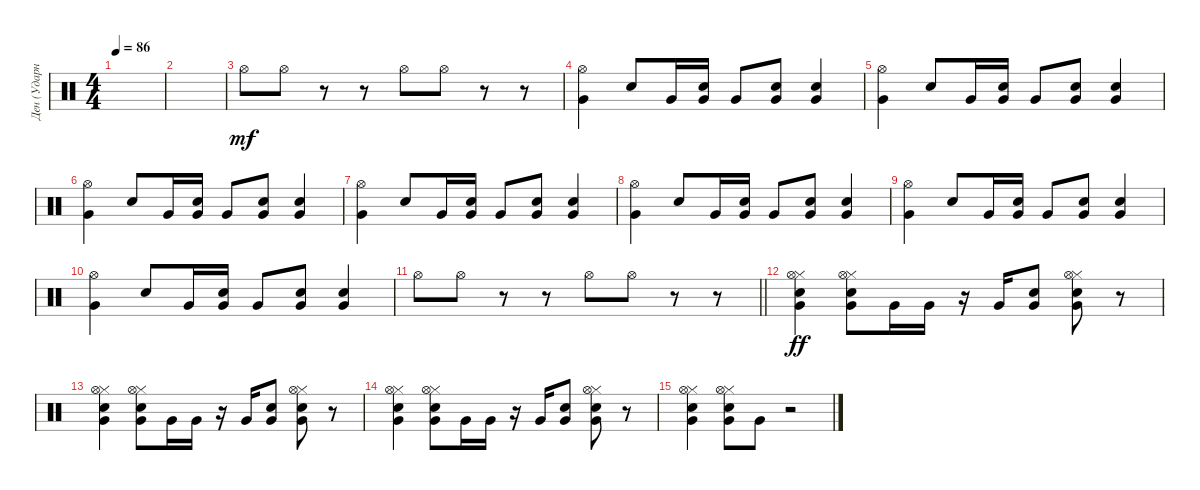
\track ("Ден (Ударные)" "Ден (Ударн") {instrument percussion}
\staff {score}
\articulation defaults
\ts (4 4)
\tempo 86
\clef neutral
\ks c
|
|
"Hi-Hat (open)".8{dy mf} "Hi-Hat (open)".8 r.8 r.8 "Hi-Hat (open)".8 "Hi-Hat (open)".8 r.8 r.8 |
("Very Low Tom (hit)" "Hi-Hat (open)").4 "Electric Snare (hit)".8 "Very Low Tom (hit)".16 ("Very Low Tom (hit)" "Electric Snare (hit)").16 "Very Low Tom (hit)".8 ("Very Low Tom (hit)" "Electric Snare (hit)").8 ("Very Low Tom (hit)" "Electric Snare (hit)").4 |
("Very Low Tom (hit)" "Hi-Hat (open)").4 "Electric Snare (hit)".8 "Very Low Tom (hit)".16 ("Very Low Tom (hit)" "Electric Snare (hit)").16 "Very Low Tom (hit)".8 ("Very Low Tom (hit)" "Electric Snare (hit)").8 ("Very Low Tom (hit)" "Electric Snare (hit)").4 |
("Very Low Tom (hit)" "Hi-Hat (open)").4 "Electric Snare (hit)".8 "Very Low Tom (hit)".16 ("Very Low Tom (hit)" "Electric Snare (hit)").16 "Very Low Tom (hit)".8 ("Very Low Tom (hit)" "Electric Snare (hit)").8 ("Very Low Tom (hit)" "Electric Snare (hit)").4 |
("Very Low Tom (hit)" "Hi-Hat (open)").4 "Electric Snare (hit)".8 "Very Low Tom (hit)".16 ("Very Low Tom (hit)" "Electric Snare (hit)").16 "Very Low Tom (hit)".8 ("Very Low Tom (hit)" "Electric Snare (hit)").8 ("Very Low Tom (hit)" "Electric Snare (hit)").4 |
("Very Low Tom (hit)" "Hi-Hat (open)").4 "Electric Snare (hit)".8 "Very Low Tom (hit)".16 ("Very Low Tom (hit)" "Electric Snare (hit)").16 "Very Low Tom (hit)".8 ("Very Low Tom (hit)" "Electric Snare (hit)").8 ("Very Low Tom (hit)" "Electric Snare (hit)").4 |
("Very Low Tom (hit)" "Hi-Hat (open)").4 "Electric Snare (hit)".8 "Very Low Tom (hit)".16 ("Very Low Tom (hit)" "Electric Snare (hit)").16 "Very Low Tom (hit)".8 ("Very Low Tom (hit)" "Electric Snare (hit)").8 ("Very Low Tom (hit)" "Electric Snare (hit)").4 |
("Very Low Tom (hit)" "Hi-Hat (open)").4 "Electric Snare (hit)".8 "Very Low Tom (hit)".16 ("Very Low Tom (hit)" "Electric Snare (hit)").16 "Very Low Tom (hit)".8 ("Very Low Tom (hit)" "Electric Snare (hit)").8 ("Very Low Tom (hit)" "Electric Snare (hit)").4 |
\barLineRight lightlight "Hi-Hat (open)".8 "Hi-Hat (open)".8
r.8 r.8 "Hi-Hat (open)".8 "Hi-Hat (open)".8 r.8 r.8 |
("Very Low Tom (hit)" "Electric Snare (hit)" "Hi-Hat (closed)" "Hi-Hat (open)").4{dy ff} ("Very Low Tom (hit)" "Electric Snare (hit)" "Hi-Hat (closed)" "Hi-Hat (open)").8 "Very Low Tom (hit)".16 "Very Low Tom (hit)".16 r.16 "Very Low Tom (hit)".16 ("Electric Snare (hit)" "Very Low Tom (hit)").8 ("Very Low Tom (hit)" "Electric Snare (hit)" "Hi-Hat (closed)" "Hi-Hat (open)").8 r.8 |
("Very Low Tom (hit)" "Electric Snare (hit)" "Hi-Hat (closed)" "Hi-Hat (open)").4 ("Very Low Tom (hit)" "Electric Snare (hit)" "Hi-Hat (closed)" "Hi-Hat (open)").8 "Very Low Tom (hit)".16 "Very Low Tom (hit)".16 r.16 "Very Low Tom (hit)".16 ("Electric Snare (hit)" "Very Low Tom (hit)").8 ("Very Low Tom (hit)" "Electric Snare (hit)" "Hi-Hat (closed)" "Hi-Hat (open)").8 r.8 |
("Very Low Tom (hit)" "Electric Snare (hit)" "Hi-Hat (closed)" "Hi-Hat (open)").4 ("Very Low Tom (hit)" "Electric Snare (hit)" "Hi-Hat (closed)" "Hi-Hat (open)").8 "Very Low Tom (hit)".16 "Very Low Tom (hit)".16 r.16 "Very Low Tom (hit)".16 ("Electric Snare (hit)" "Very Low Tom (hit)").8 ("Very Low Tom (hit)" "Electric Snare (hit)" "Hi-Hat (closed)" "Hi-Hat (open)").8 r.8 |
("Very Low Tom (hit)" "Electric Snare (hit)" "Hi-Hat (closed)" "Hi-Hat (open)").4 ("Very Low Tom (hit)" "Electric Snare (hit)" "Hi-Hat (closed)" "Hi-Hat (open)").8 "Very Low Tom (hit)".8 r.2
